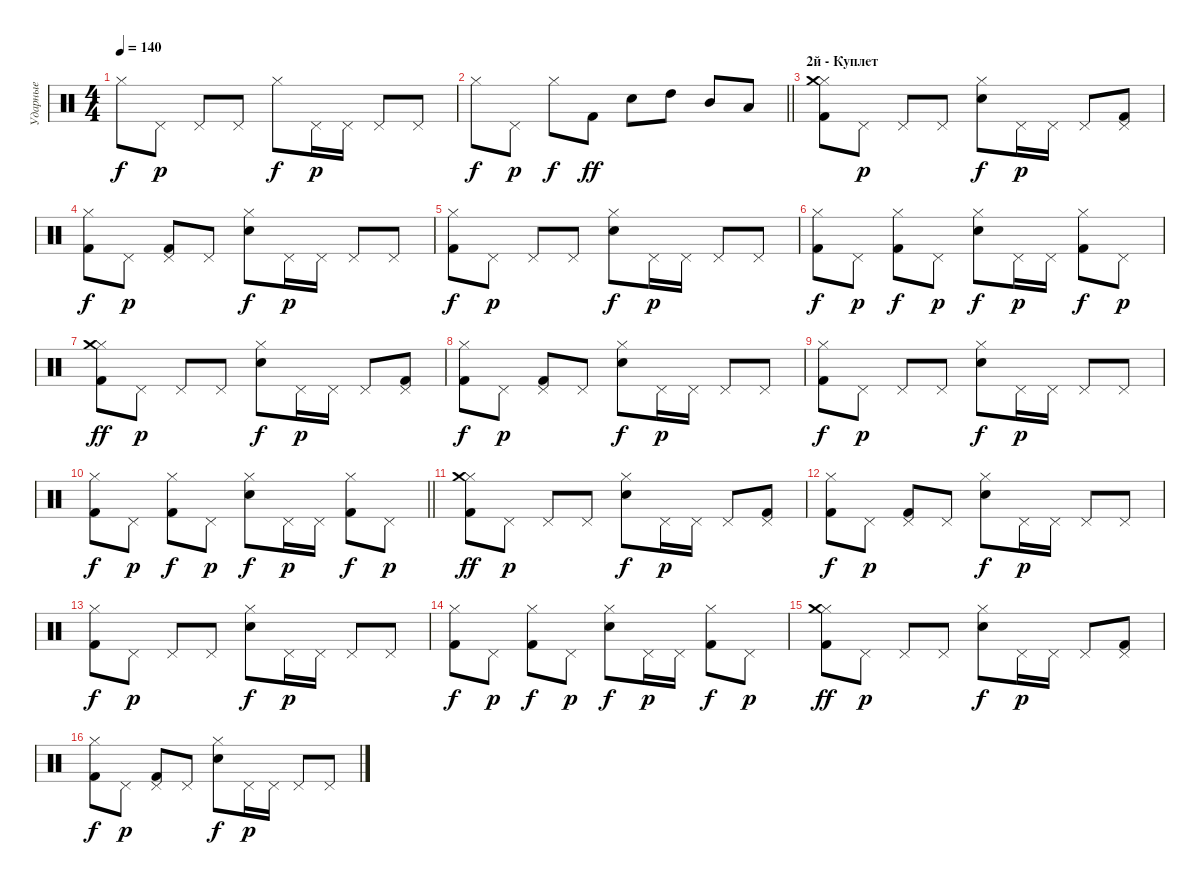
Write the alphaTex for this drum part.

\track ("Ударные" "Ударные") {instrument percussion}
\staff {score}
\articulation defaults
\ts (4 4)
\tempo 140
\clef neutral
\ks c "Hi-Hat (closed)".8{dy f} "Pedal Hi-Hat (hit)".8{dy p} "Pedal Hi-Hat (hit)".8 "Pedal Hi-Hat (hit)".8 "Hi-Hat (closed)".8{dy f} "Pedal Hi-Hat (hit)".16{dy p} "Pedal Hi-Hat (hit)".16 "Pedal Hi-Hat (hit)".8 "Pedal Hi-Hat (hit)".8
|
\barLineRight lightlight "Hi-Hat (closed)".8{dy f} "Pedal Hi-Hat (hit)".8{dy p} "Hi-Hat (closed)".8{dy f} "Kick (hit) 2".8{dy ff} "Snare (hit) 2".8 "High Tom (hit)".8 "Mid Tom (hit)".8 "Low Tom (hit)".8
|
\section ("" "2й - Куплет")
("Hi-Hat (closed)" "Kick (hit) 2" "Crash medium (hit)").8 "Pedal Hi-Hat (hit)".8{dy p} "Pedal Hi-Hat (hit)".8 "Pedal Hi-Hat (hit)".8 ("Snare (hit) 2" "Hi-Hat (closed)").8{dy f} "Pedal Hi-Hat (hit)".16{dy p} "Pedal Hi-Hat (hit)".16 "Pedal Hi-Hat (hit)".8 ("Pedal Hi-Hat (hit)" "Kick (hit) 2").8 |
("Kick (hit) 2" "Hi-Hat (closed)").8{dy f} "Pedal Hi-Hat (hit)".8{dy p} ("Pedal Hi-Hat (hit)" "Kick (hit) 2").8 "Pedal Hi-Hat (hit)".8 ("Snare (hit) 2" "Hi-Hat (closed)").8{dy f} "Pedal Hi-Hat (hit)".16{dy p} "Pedal Hi-Hat (hit)".16 "Pedal Hi-Hat (hit)".8 "Pedal Hi-Hat (hit)".8 |
("Hi-Hat (closed)" "Kick (hit) 2").8{dy f} "Pedal Hi-Hat (hit)".8{dy p} "Pedal Hi-Hat (hit)".8 "Pedal Hi-Hat (hit)".8 ("Snare (hit) 2" "Hi-Hat (closed)").8{dy f} "Pedal Hi-Hat (hit)".16{dy p} "Pedal Hi-Hat (hit)".16 "Pedal Hi-Hat (hit)".8 "Pedal Hi-Hat (hit)".8 |
("Kick (hit) 2" "Hi-Hat (closed)").8{dy f} "Pedal Hi-Hat (hit)".8{dy p} ("Kick (hit) 2" "Hi-Hat (closed)").8{dy f} "Pedal Hi-Hat (hit)".8{dy p} ("Hi-Hat (closed)" "Snare (hit) 2").8{dy f} "Pedal Hi-Hat (hit)".16{dy p} "Pedal Hi-Hat (hit)".16 ("Kick (hit) 2" "Hi-Hat (closed)").8{dy f} "Pedal Hi-Hat (hit)".8{dy p} |
("Hi-Hat (closed)" "Kick (hit) 2" "Crash medium (hit)").8{dy ff} "Pedal Hi-Hat (hit)".8{dy p} "Pedal Hi-Hat (hit)".8 "Pedal Hi-Hat (hit)".8 ("Snare (hit) 2" "Hi-Hat (closed)").8{dy f} "Pedal Hi-Hat (hit)".16{dy p} "Pedal Hi-Hat (hit)".16 "Pedal Hi-Hat (hit)".8 ("Pedal Hi-Hat (hit)" "Kick (hit) 2").8 |
("Kick (hit) 2" "Hi-Hat (closed)").8{dy f} "Pedal Hi-Hat (hit)".8{dy p} ("Pedal Hi-Hat (hit)" "Kick (hit) 2").8 "Pedal Hi-Hat (hit)".8 ("Snare (hit) 2" "Hi-Hat (closed)").8{dy f} "Pedal Hi-Hat (hit)".16{dy p} "Pedal Hi-Hat (hit)".16 "Pedal Hi-Hat (hit)".8 "Pedal Hi-Hat (hit)".8 |
("Hi-Hat (closed)" "Kick (hit) 2").8{dy f} "Pedal Hi-Hat (hit)".8{dy p} "Pedal Hi-Hat (hit)".8 "Pedal Hi-Hat (hit)".8 ("Snare (hit) 2" "Hi-Hat (closed)").8{dy f} "Pedal Hi-Hat (hit)".16{dy p} "Pedal Hi-Hat (hit)".16 "Pedal Hi-Hat (hit)".8 "Pedal Hi-Hat (hit)".8 |
\barLineRight lightlight
("Kick (hit) 2" "Hi-Hat (closed)").8{dy f} "Pedal Hi-Hat (hit)".8{dy p} ("Kick (hit) 2" "Hi-Hat (closed)").8{dy f} "Pedal Hi-Hat (hit)".8{dy p} ("Hi-Hat (closed)" "Snare (hit) 2").8{dy f} "Pedal Hi-Hat (hit)".16{dy p} "Pedal Hi-Hat (hit)".16 ("Kick (hit) 2" "Hi-Hat (closed)").8{dy f} "Pedal Hi-Hat (hit)".8{dy p} |
("Hi-Hat (closed)" "Kick (hit) 2" "Crash medium (hit)").8{dy ff} "Pedal Hi-Hat (hit)".8{dy p} "Pedal Hi-Hat (hit)".8 "Pedal Hi-Hat (hit)".8 ("Snare (hit) 2" "Hi-Hat (closed)").8{dy f} "Pedal Hi-Hat (hit)".16{dy p} "Pedal Hi-Hat (hit)".16 "Pedal Hi-Hat (hit)".8 ("Pedal Hi-Hat (hit)" "Kick (hit) 2").8 |
("Kick (hit) 2" "Hi-Hat (closed)").8{dy f} "Pedal Hi-Hat (hit)".8{dy p} ("Pedal Hi-Hat (hit)" "Kick (hit) 2").8 "Pedal Hi-Hat (hit)".8 ("Snare (hit) 2" "Hi-Hat (closed)").8{dy f} "Pedal Hi-Hat (hit)".16{dy p} "Pedal Hi-Hat (hit)".16 "Pedal Hi-Hat (hit)".8 "Pedal Hi-Hat (hit)".8 |
("Hi-Hat (closed)" "Kick (hit) 2").8{dy f} "Pedal Hi-Hat (hit)".8{dy p} "Pedal Hi-Hat (hit)".8 "Pedal Hi-Hat (hit)".8 ("Snare (hit) 2" "Hi-Hat (closed)").8{dy f} "Pedal Hi-Hat (hit)".16{dy p} "Pedal Hi-Hat (hit)".16 "Pedal Hi-Hat (hit)".8 "Pedal Hi-Hat (hit)".8 |
("Kick (hit) 2" "Hi-Hat (closed)").8{dy f} "Pedal Hi-Hat (hit)".8{dy p} ("Kick (hit) 2" "Hi-Hat (closed)").8{dy f} "Pedal Hi-Hat (hit)".8{dy p} ("Hi-Hat (closed)" "Snare (hit) 2").8{dy f} "Pedal Hi-Hat (hit)".16{dy p} "Pedal Hi-Hat (hit)".16 ("Kick (hit) 2" "Hi-Hat (closed)").8{dy f} "Pedal Hi-Hat (hit)".8{dy p} |
("Hi-Hat (closed)" "Kick (hit) 2" "Crash medium (hit)").8{dy ff} "Pedal Hi-Hat (hit)".8{dy p} "Pedal Hi-Hat (hit)".8 "Pedal Hi-Hat (hit)".8 ("Snare (hit) 2" "Hi-Hat (closed)").8{dy f} "Pedal Hi-Hat (hit)".16{dy p} "Pedal Hi-Hat (hit)".16 "Pedal Hi-Hat (hit)".8 ("Pedal Hi-Hat (hit)" "Kick (hit) 2").8 |
("Kick (hit) 2" "Hi-Hat (closed)").8{dy f} "Pedal Hi-Hat (hit)".8{dy p} ("Pedal Hi-Hat (hit)" "Kick (hit) 2").8 "Pedal Hi-Hat (hit)".8 ("Snare (hit) 2" "Hi-Hat (closed)").8{dy f} "Pedal Hi-Hat (hit)".16{dy p} "Pedal Hi-Hat (hit)".16 "Pedal Hi-Hat (hit)".8 "Pedal Hi-Hat (hit)".8
